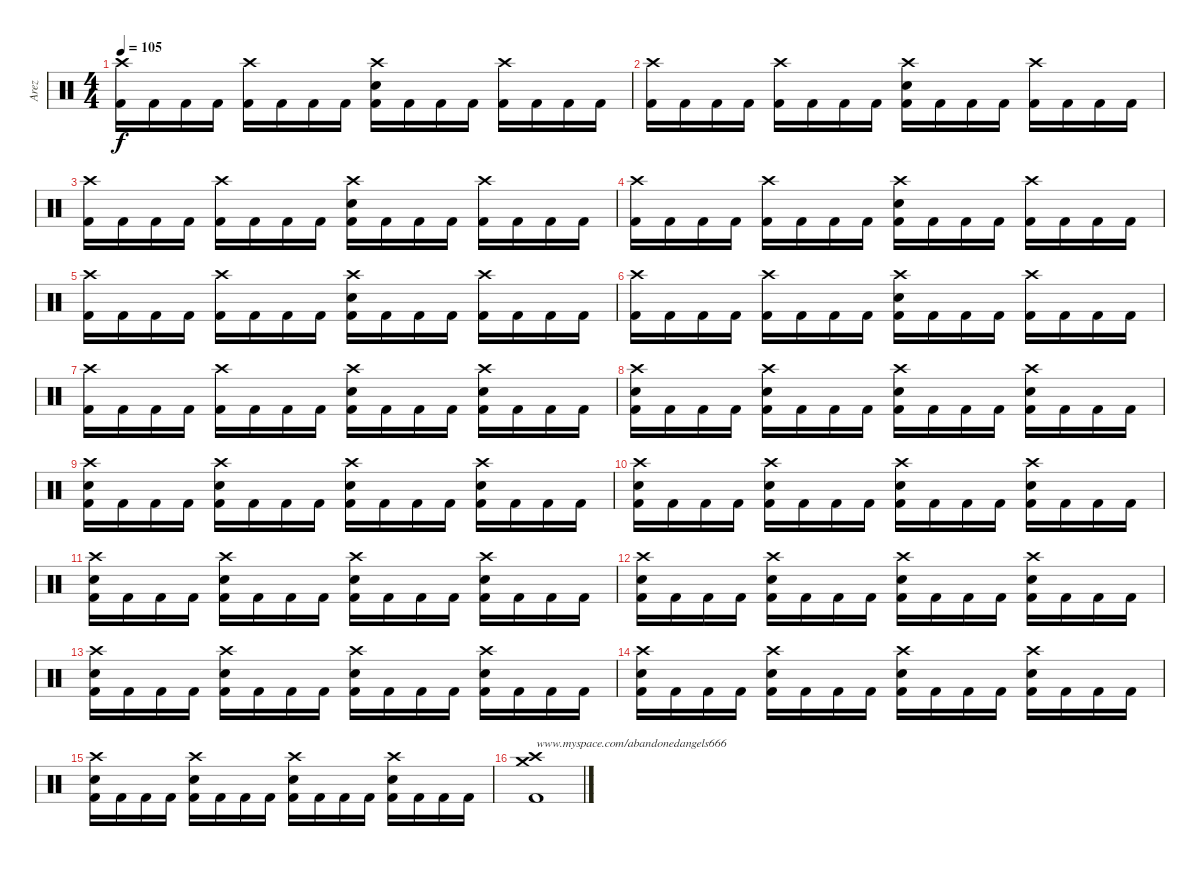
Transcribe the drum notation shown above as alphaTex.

\track ("Arez" "Arez") {instrument percussion}
\staff {score}
\articulation defaults
\ts (4 4)
\tempo 105
\clef neutral
\ks c
("Crash high (hit)" "Kick (hit) 2").16{dy f} "Kick (hit) 2".16 "Kick (hit) 2".16 "Kick (hit) 2".16 ("Kick (hit) 2" "Crash high (hit)").16 "Kick (hit) 2".16 "Kick (hit) 2".16 "Kick (hit) 2".16 ("Crash high (hit)" "Kick (hit) 2" "Electric Snare (hit)").16 "Kick (hit) 2".16 "Kick (hit) 2".16 "Kick (hit) 2".16 ("Kick (hit) 2" "Crash high (hit)").16 "Kick (hit) 2".16 "Kick (hit) 2".16 "Kick (hit) 2".16 |
("Crash high (hit)" "Kick (hit) 2").16 "Kick (hit) 2".16 "Kick (hit) 2".16 "Kick (hit) 2".16 ("Kick (hit) 2" "Crash high (hit)").16 "Kick (hit) 2".16 "Kick (hit) 2".16 "Kick (hit) 2".16 ("Crash high (hit)" "Kick (hit) 2" "Electric Snare (hit)").16 "Kick (hit) 2".16 "Kick (hit) 2".16 "Kick (hit) 2".16 ("Kick (hit) 2" "Crash high (hit)").16 "Kick (hit) 2".16 "Kick (hit) 2".16 "Kick (hit) 2".16 |
("Crash high (hit)" "Kick (hit) 2").16 "Kick (hit) 2".16 "Kick (hit) 2".16 "Kick (hit) 2".16 ("Kick (hit) 2" "Crash high (hit)").16 "Kick (hit) 2".16 "Kick (hit) 2".16 "Kick (hit) 2".16 ("Crash high (hit)" "Kick (hit) 2" "Electric Snare (hit)").16 "Kick (hit) 2".16 "Kick (hit) 2".16 "Kick (hit) 2".16 ("Kick (hit) 2" "Crash high (hit)").16 "Kick (hit) 2".16 "Kick (hit) 2".16 "Kick (hit) 2".16 |
("Crash high (hit)" "Kick (hit) 2").16 "Kick (hit) 2".16 "Kick (hit) 2".16 "Kick (hit) 2".16 ("Kick (hit) 2" "Crash high (hit)").16 "Kick (hit) 2".16 "Kick (hit) 2".16 "Kick (hit) 2".16 ("Crash high (hit)" "Kick (hit) 2" "Electric Snare (hit)").16 "Kick (hit) 2".16 "Kick (hit) 2".16 "Kick (hit) 2".16 ("Kick (hit) 2" "Crash high (hit)").16 "Kick (hit) 2".16 "Kick (hit) 2".16 "Kick (hit) 2".16 |
("Crash high (hit)" "Kick (hit) 2").16 "Kick (hit) 2".16 "Kick (hit) 2".16 "Kick (hit) 2".16 ("Kick (hit) 2" "Crash high (hit)").16 "Kick (hit) 2".16 "Kick (hit) 2".16 "Kick (hit) 2".16 ("Crash high (hit)" "Kick (hit) 2" "Electric Snare (hit)").16 "Kick (hit) 2".16 "Kick (hit) 2".16 "Kick (hit) 2".16 ("Kick (hit) 2" "Crash high (hit)").16 "Kick (hit) 2".16 "Kick (hit) 2".16 "Kick (hit) 2".16 |
("Crash high (hit)" "Kick (hit) 2").16 "Kick (hit) 2".16 "Kick (hit) 2".16 "Kick (hit) 2".16 ("Kick (hit) 2" "Crash high (hit)").16 "Kick (hit) 2".16 "Kick (hit) 2".16 "Kick (hit) 2".16 ("Crash high (hit)" "Kick (hit) 2" "Electric Snare (hit)").16 "Kick (hit) 2".16 "Kick (hit) 2".16 "Kick (hit) 2".16 ("Kick (hit) 2" "Crash high (hit)").16 "Kick (hit) 2".16 "Kick (hit) 2".16 "Kick (hit) 2".16 |
("Crash high (hit)" "Kick (hit) 2").16 "Kick (hit) 2".16 "Kick (hit) 2".16 "Kick (hit) 2".16 ("Kick (hit) 2" "Crash high (hit)").16 "Kick (hit) 2".16 "Kick (hit) 2".16 "Kick (hit) 2".16 ("Crash high (hit)" "Kick (hit) 2" "Electric Snare (hit)").16 "Kick (hit) 2".16 "Kick (hit) 2".16 "Kick (hit) 2".16 ("Kick (hit) 2" "Crash high (hit)" "Electric Snare (hit)").16 "Kick (hit) 2".16 "Kick (hit) 2".16 "Kick (hit) 2".16 |
("Crash high (hit)" "Kick (hit) 2" "Electric Snare (hit)").16 "Kick (hit) 2".16 "Kick (hit) 2".16 "Kick (hit) 2".16 ("Kick (hit) 2" "Crash high (hit)" "Electric Snare (hit)").16 "Kick (hit) 2".16 "Kick (hit) 2".16 "Kick (hit) 2".16 ("Crash high (hit)" "Kick (hit) 2" "Electric Snare (hit)").16 "Kick (hit) 2".16 "Kick (hit) 2".16 "Kick (hit) 2".16 ("Kick (hit) 2" "Crash high (hit)" "Electric Snare (hit)").16 "Kick (hit) 2".16 "Kick (hit) 2".16 "Kick (hit) 2".16 |
("Crash high (hit)" "Kick (hit) 2" "Electric Snare (hit)").16 "Kick (hit) 2".16 "Kick (hit) 2".16 "Kick (hit) 2".16 ("Kick (hit) 2" "Crash high (hit)" "Electric Snare (hit)").16 "Kick (hit) 2".16 "Kick (hit) 2".16 "Kick (hit) 2".16 ("Crash high (hit)" "Kick (hit) 2" "Electric Snare (hit)").16 "Kick (hit) 2".16 "Kick (hit) 2".16 "Kick (hit) 2".16 ("Kick (hit) 2" "Crash high (hit)" "Electric Snare (hit)").16 "Kick (hit) 2".16 "Kick (hit) 2".16 "Kick (hit) 2".16 |
("Crash high (hit)" "Kick (hit) 2" "Electric Snare (hit)").16 "Kick (hit) 2".16 "Kick (hit) 2".16 "Kick (hit) 2".16 ("Kick (hit) 2" "Crash high (hit)" "Electric Snare (hit)").16 "Kick (hit) 2".16 "Kick (hit) 2".16 "Kick (hit) 2".16 ("Crash high (hit)" "Kick (hit) 2" "Electric Snare (hit)").16 "Kick (hit) 2".16 "Kick (hit) 2".16 "Kick (hit) 2".16 ("Kick (hit) 2" "Crash high (hit)" "Electric Snare (hit)").16 "Kick (hit) 2".16 "Kick (hit) 2".16 "Kick (hit) 2".16 |
("Crash high (hit)" "Kick (hit) 2" "Electric Snare (hit)").16 "Kick (hit) 2".16 "Kick (hit) 2".16 "Kick (hit) 2".16 ("Kick (hit) 2" "Crash high (hit)" "Electric Snare (hit)").16 "Kick (hit) 2".16 "Kick (hit) 2".16 "Kick (hit) 2".16 ("Crash high (hit)" "Kick (hit) 2" "Electric Snare (hit)").16 "Kick (hit) 2".16 "Kick (hit) 2".16 "Kick (hit) 2".16 ("Kick (hit) 2" "Crash high (hit)" "Electric Snare (hit)").16 "Kick (hit) 2".16 "Kick (hit) 2".16 "Kick (hit) 2".16 |
("Crash high (hit)" "Kick (hit) 2" "Electric Snare (hit)").16 "Kick (hit) 2".16 "Kick (hit) 2".16 "Kick (hit) 2".16 ("Kick (hit) 2" "Crash high (hit)" "Electric Snare (hit)").16 "Kick (hit) 2".16 "Kick (hit) 2".16 "Kick (hit) 2".16 ("Crash high (hit)" "Kick (hit) 2" "Electric Snare (hit)").16 "Kick (hit) 2".16 "Kick (hit) 2".16 "Kick (hit) 2".16 ("Kick (hit) 2" "Crash high (hit)" "Electric Snare (hit)").16 "Kick (hit) 2".16 "Kick (hit) 2".16 "Kick (hit) 2".16 |
("Crash high (hit)" "Kick (hit) 2" "Electric Snare (hit)").16 "Kick (hit) 2".16 "Kick (hit) 2".16 "Kick (hit) 2".16 ("Kick (hit) 2" "Crash high (hit)" "Electric Snare (hit)").16 "Kick (hit) 2".16 "Kick (hit) 2".16 "Kick (hit) 2".16 ("Crash high (hit)" "Kick (hit) 2" "Electric Snare (hit)").16 "Kick (hit) 2".16 "Kick (hit) 2".16 "Kick (hit) 2".16 ("Kick (hit) 2" "Crash high (hit)" "Electric Snare (hit)").16 "Kick (hit) 2".16 "Kick (hit) 2".16 "Kick (hit) 2".16 |
("Crash high (hit)" "Kick (hit) 2" "Electric Snare (hit)").16 "Kick (hit) 2".16 "Kick (hit) 2".16 "Kick (hit) 2".16 ("Kick (hit) 2" "Crash high (hit)" "Electric Snare (hit)").16 "Kick (hit) 2".16 "Kick (hit) 2".16 "Kick (hit) 2".16 ("Crash high (hit)" "Kick (hit) 2" "Electric Snare (hit)").16 "Kick (hit) 2".16 "Kick (hit) 2".16 "Kick (hit) 2".16 ("Kick (hit) 2" "Crash high (hit)" "Electric Snare (hit)").16 "Kick (hit) 2".16 "Kick (hit) 2".16 "Kick (hit) 2".16 |
("Crash high (hit)" "Kick (hit) 2" "Electric Snare (hit)").16 "Kick (hit) 2".16 "Kick (hit) 2".16 "Kick (hit) 2".16 ("Kick (hit) 2" "Crash high (hit)" "Electric Snare (hit)").16 "Kick (hit) 2".16 "Kick (hit) 2".16 "Kick (hit) 2".16 ("Crash high (hit)" "Kick (hit) 2" "Electric Snare (hit)").16 "Kick (hit) 2".16 "Kick (hit) 2".16 "Kick (hit) 2".16 ("Kick (hit) 2" "Crash high (hit)" "Electric Snare (hit)").16 "Kick (hit) 2".16 "Kick (hit) 2".16 "Kick (hit) 2".16 |
("Crash high (hit)" "Crash medium (hit)" "Kick (hit) 2").1{txt "www.myspace.com/abandonedangels666"}
